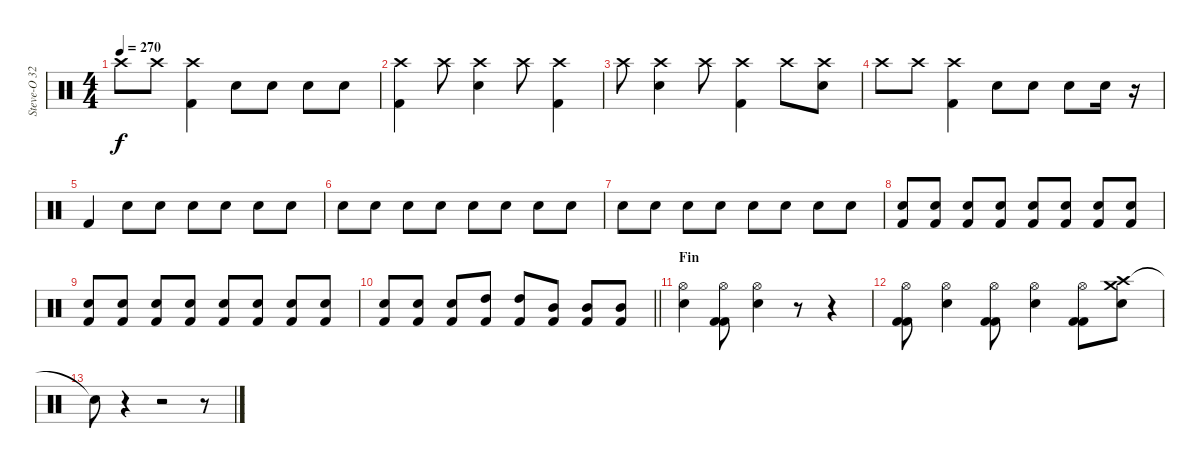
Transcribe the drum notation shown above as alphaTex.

\track ("Steve-O 32" "Steve-O 32") {instrument percussion}
\staff {score}
\articulation defaults
\ts (4 4)
\tempo 270
\clef neutral
\ks c "Crash high (hit)".8{dy f} "Crash high (hit)".8
("Kick (hit) 2" "Crash high (hit)").4 "Electric Snare (hit)".8 "Electric Snare (hit)".8 "Electric Snare (hit)".8 "Electric Snare (hit)".8 |
("Crash high (hit)" "Kick (hit) 2").4 "Crash high (hit)".8 ("Electric Snare (hit)" "Crash high (hit)").4 "Crash high (hit)".8 ("Kick (hit) 2" "Crash high (hit)").4 |
"Crash high (hit)".8 ("Electric Snare (hit)" "Crash high (hit)").4 "Crash high (hit)".8 ("Kick (hit) 2" "Crash high (hit)").4 "Crash high (hit)".8 ("Electric Snare (hit)" "Crash high (hit)").8 |
"Crash high (hit)".8 "Crash high (hit)".8 ("Kick (hit) 2" "Crash high (hit)").4 "Electric Snare (hit)".8 "Electric Snare (hit)".8 "Electric Snare (hit)".8 "Electric Snare (hit)".16 r.16{volume 5} |
"Kick (hit) 2".4{volume 13} "Electric Snare (hit)".8 "Electric Snare (hit)".8 "Electric Snare (hit)".8 "Electric Snare (hit)".8 "Electric Snare (hit)".8 "Electric Snare (hit)".8 |
"Electric Snare (hit)".8 "Electric Snare (hit)".8 "Electric Snare (hit)".8 "Electric Snare (hit)".8 "Electric Snare (hit)".8 "Electric Snare (hit)".8 "Electric Snare (hit)".8 "Electric Snare (hit)".8 |
"Electric Snare (hit)".8 "Electric Snare (hit)".8 "Electric Snare (hit)".8 "Electric Snare (hit)".8 "Electric Snare (hit)".8 "Electric Snare (hit)".8 "Electric Snare (hit)".8 "Electric Snare (hit)".8 |
("Electric Snare (hit)" "Kick (hit) 2").8 ("Electric Snare (hit)" "Kick (hit) 2").8 ("Electric Snare (hit)" "Kick (hit) 2").8 ("Electric Snare (hit)" "Kick (hit) 2").8 ("Electric Snare (hit)" "Kick (hit) 2").8 ("Electric Snare (hit)" "Kick (hit) 2").8 ("Electric Snare (hit)" "Kick (hit) 2").8 ("Electric Snare (hit)" "Kick (hit) 2").8 |
("Electric Snare (hit)" "Kick (hit) 2").8 ("Electric Snare (hit)" "Kick (hit) 2").8 ("Electric Snare (hit)" "Kick (hit) 2").8 ("Electric Snare (hit)" "Kick (hit) 2").8 ("Electric Snare (hit)" "Kick (hit) 2").8 ("Electric Snare (hit)" "Kick (hit) 2").8 ("Electric Snare (hit)" "Kick (hit) 2").8 ("Electric Snare (hit)" "Kick (hit) 2").8 |
\barLineRight lightlight
("Electric Snare (hit)" "Kick (hit) 2").8 ("Electric Snare (hit)" "Kick (hit) 2").8 ("Electric Snare (hit)" "Kick (hit) 2").8 ("High Tom (hit)" "Kick (hit) 2").8 ("High Tom (hit)" "Kick (hit) 2").8 ("Mid Tom (hit)" "Kick (hit) 2").8 ("Mid Tom (hit)" "Kick (hit) 2").8 ("Mid Tom (hit)" "Kick (hit) 2").8 |
\section ("" "Fin")
("Electric Snare (hit)" "Hi-Hat (open)").4 ("Kick (hit) 2" "Kick (hit) 2" "Hi-Hat (open)").8 ("Electric Snare (hit)" "Hi-Hat (open)").4 r.8 r.4 |
("Hi-Hat (open)" "Kick (hit) 2" "Kick (hit) 2").8 ("Hi-Hat (open)" "Electric Snare (hit)").4 ("Hi-Hat (open)" "Kick (hit) 2" "Kick (hit) 2").8 ("Hi-Hat (open)" "Electric Snare (hit)").4 ("Hi-Hat (open)" "Kick (hit) 2" "Kick (hit) 2").8 ("Crash high (hit)" "Crash medium (hit)" "Electric Snare (hit)").8 |
"Snare (hit)"{t}.8 r.4 r.2 r.8
